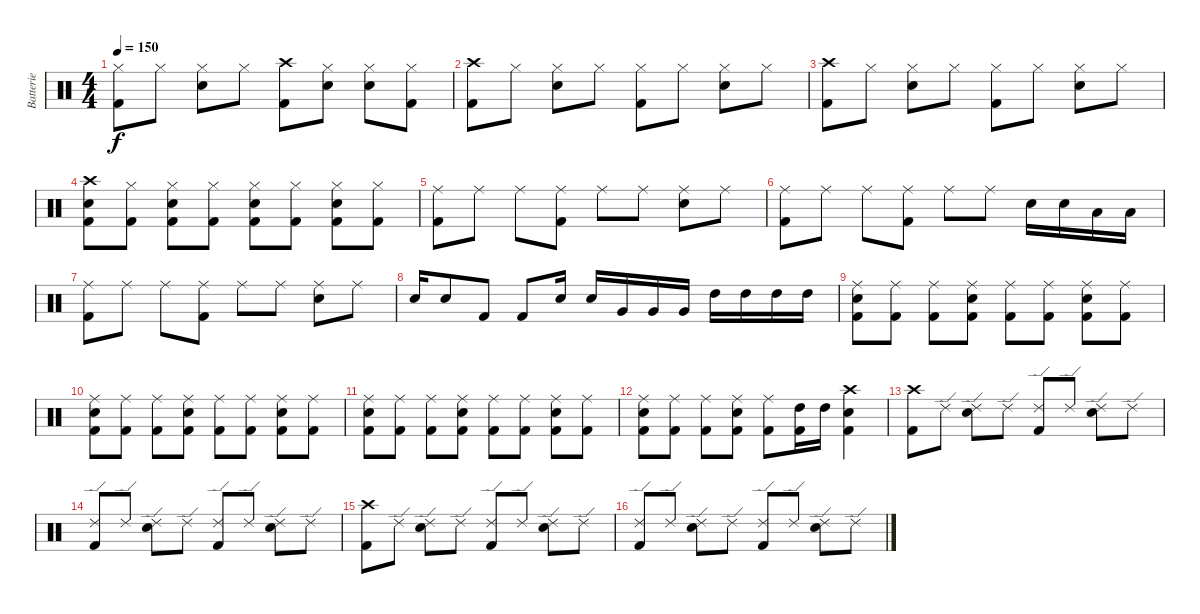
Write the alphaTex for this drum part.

\track ("Batterie" "Batterie") {instrument percussion}
\staff {score}
\articulation defaults
\ts (4 4)
\tempo 150
\clef neutral
\ks c
("Hi-Hat (closed)" "Kick (hit) 2").8{dy f} "Hi-Hat (closed)".8 ("Hi-Hat (closed)" "Snare (hit) 2").8 "Hi-Hat (closed)".8 ("Crash high (hit)" "Kick (hit) 2").8 ("Hi-Hat (closed)" "Snare (hit) 2").8 ("Hi-Hat (closed)" "Snare (hit) 2").8 ("Hi-Hat (closed)" "Kick (hit) 2").8 |
("Crash high (hit)" "Kick (hit) 2").8 "Hi-Hat (closed)".8 ("Hi-Hat (closed)" "Snare (hit) 2").8 "Hi-Hat (closed)".8 ("Hi-Hat (closed)" "Kick (hit) 2").8 "Hi-Hat (closed)".8 ("Hi-Hat (closed)" "Snare (hit) 2").8 "Hi-Hat (closed)".8 |
("Crash high (hit)" "Kick (hit) 2").8 "Hi-Hat (closed)".8 ("Hi-Hat (closed)" "Snare (hit) 2").8 "Hi-Hat (closed)".8 ("Hi-Hat (closed)" "Kick (hit) 2").8 "Hi-Hat (closed)".8 ("Hi-Hat (closed)" "Snare (hit) 2").8 "Hi-Hat (closed)".8 |
("Crash high (hit)" "Snare (hit) 2" "Kick (hit) 2").8 ("Hi-Hat (closed)" "Kick (hit) 2").8 ("Hi-Hat (closed)" "Snare (hit) 2" "Kick (hit) 2").8 ("Hi-Hat (closed)" "Kick (hit) 2").8 ("Hi-Hat (closed)" "Snare (hit) 2" "Kick (hit) 2").8 ("Hi-Hat (closed)" "Kick (hit) 2").8 ("Hi-Hat (closed)" "Snare (hit) 2" "Kick (hit) 2").8 ("Hi-Hat (closed)" "Kick (hit) 2").8 |
("Ride (middle)" "Kick (hit) 2").8 "Ride (middle)".8 "Ride (middle)".8 ("Ride (middle)" "Kick (hit) 2").8 "Ride (middle)".8 "Ride (middle)".8 ("Ride (middle)" "Snare (hit) 2").8 "Ride (middle)".8 |
("Ride (middle)" "Kick (hit) 2").8 "Ride (middle)".8 "Ride (middle)".8 ("Ride (middle)" "Kick (hit) 2").8 "Ride (middle)".8 "Ride (middle)".8 "Snare (hit) 2".16 "Snare (hit) 2".16 "Low Floor Tom (hit)".16 "Low Floor Tom (hit)".16 |
("Ride (middle)" "Kick (hit) 2").8 "Ride (middle)".8 "Ride (middle)".8 ("Ride (middle)" "Kick (hit) 2").8 "Ride (middle)".8 "Ride (middle)".8 ("Ride (middle)" "Snare (hit) 2").8 "Ride (middle)".8 |
"Snare (hit) 2".16 "Snare (hit) 2".8 "Kick (hit) 2".8 "Kick (hit) 2".8 "Snare (hit) 2".16 "Snare (hit) 2".16 "Very Low Tom (hit)".16 "Very Low Tom (hit)".16 "Very Low Tom (hit)".16 "High Tom (hit)".16 "High Tom (hit)".16 "High Tom (hit)".16 "High Tom (hit)".16 |
("Ride (middle)" "Snare (hit) 2" "Kick (hit) 2").8 ("Ride (middle)" "Kick (hit) 2").8 ("Ride (middle)" "Kick (hit) 2").8 ("Ride (middle)" "Snare (hit) 2" "Kick (hit) 2").8 ("Ride (middle)" "Kick (hit) 2").8 ("Ride (middle)" "Kick (hit) 2").8 ("Ride (middle)" "Snare (hit) 2" "Kick (hit) 2").8 ("Ride (middle)" "Kick (hit) 2").8 |
("Ride (middle)" "Snare (hit) 2" "Kick (hit) 2").8 ("Ride (middle)" "Kick (hit) 2").8 ("Ride (middle)" "Kick (hit) 2").8 ("Ride (middle)" "Snare (hit) 2" "Kick (hit) 2").8 ("Ride (middle)" "Kick (hit) 2").8 ("Ride (middle)" "Kick (hit) 2").8 ("Ride (middle)" "Snare (hit) 2" "Kick (hit) 2").8 ("Ride (middle)" "Kick (hit) 2").8 |
("Ride (middle)" "Snare (hit) 2" "Kick (hit) 2").8 ("Ride (middle)" "Kick (hit) 2").8 ("Ride (middle)" "Kick (hit) 2").8 ("Ride (middle)" "Snare (hit) 2" "Kick (hit) 2").8 ("Ride (middle)" "Kick (hit) 2").8 ("Ride (middle)" "Kick (hit) 2").8 ("Ride (middle)" "Snare (hit) 2" "Kick (hit) 2").8 ("Ride (middle)" "Kick (hit) 2").8 |
("Ride (middle)" "Snare (hit) 2" "Kick (hit) 2").8 ("Ride (middle)" "Kick (hit) 2").8 ("Ride (middle)" "Kick (hit) 2").8 ("Ride (middle)" "Snare (hit) 2" "Kick (hit) 2").8 ("Ride (middle)" "Kick (hit) 2").8 ("High Tom (hit)" "Kick (hit) 2").16 "High Tom (hit)".16 ("Crash high (hit)" "Snare (hit) 2" "Kick (hit) 2").4 |
("Crash high (hit)" "Kick (hit) 2").8 "Ride (edge) 2".8 ("Ride (edge) 2" "Snare (hit) 2").8 "Ride (edge) 2".8 ("Ride (edge) 2" "Kick (hit) 2").8 "Ride (edge) 2".8 ("Ride (edge) 2" "Snare (hit) 2").8 "Ride (edge) 2".8 |
("Ride (edge) 2" "Kick (hit) 2").8 "Ride (edge) 2".8 ("Ride (edge) 2" "Snare (hit) 2").8 "Ride (edge) 2".8 ("Ride (edge) 2" "Kick (hit) 2").8 "Ride (edge) 2".8 ("Ride (edge) 2" "Snare (hit) 2").8 "Ride (edge) 2".8 |
("Crash high (hit)" "Kick (hit) 2").8 "Ride (edge) 2".8 ("Ride (edge) 2" "Snare (hit) 2").8 "Ride (edge) 2".8 ("Ride (edge) 2" "Kick (hit) 2").8 "Ride (edge) 2".8 ("Ride (edge) 2" "Snare (hit) 2").8 "Ride (edge) 2".8 |
("Ride (edge) 2" "Kick (hit) 2").8 "Ride (edge) 2".8 ("Ride (edge) 2" "Snare (hit) 2").8 "Ride (edge) 2".8 ("Ride (edge) 2" "Kick (hit) 2").8 "Ride (edge) 2".8 ("Ride (edge) 2" "Snare (hit) 2").8 "Ride (edge) 2".8
